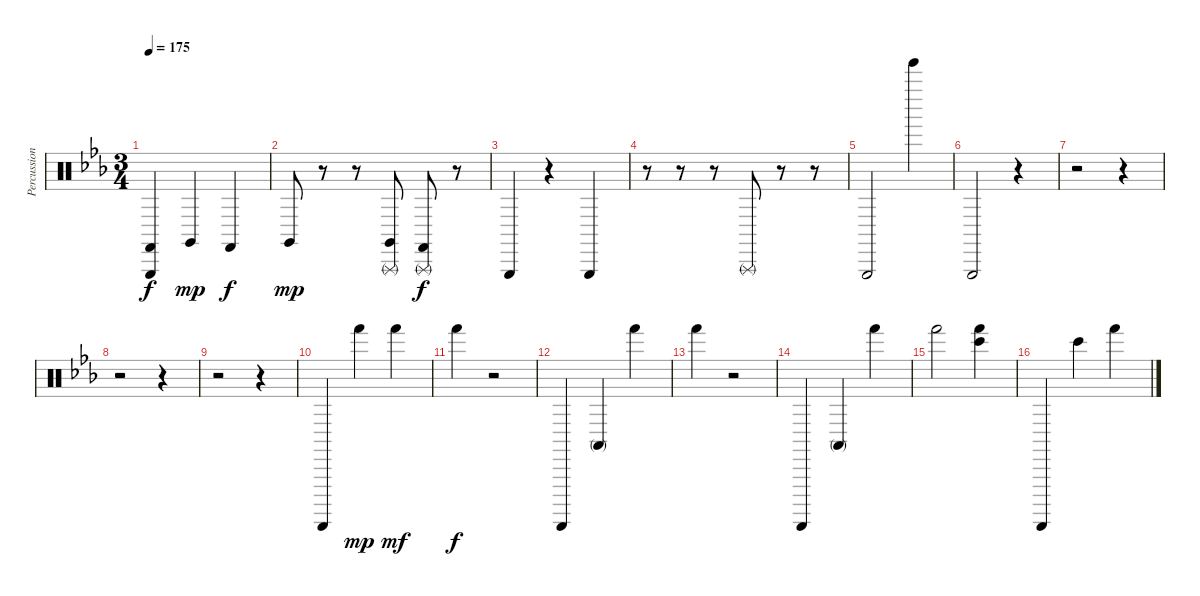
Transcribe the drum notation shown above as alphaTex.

\track ("Percussion" "Percussion") {instrument percussion}
\staff {score}
\articulation defaults
\ts (3 4)
\tempo 175
\clef neutral
\ks eb
("Triangle (hit)" "Castanets (hit)").4{dy f} "Claves (hit)".4{dy mp} "Castanets (hit)".4{dy f} |
"Claves (hit)".8{dy mp} r.8 r.8 ("Triangle (rnute)" "Claves (hit)").8 ("Triangle (rnute)" "Castanets (hit)").8{dy f} r.8 |
"Triangle (hit)".4 r.4 "Triangle (hit)".4 |
r.8 r.8 r.8 "Triangle (rnute)".8 r.8 r.8 |
"Triangle (hit)".2 "Tinkle Bell (hit)".4 |
"Triangle (hit)".2 r.4 |
r.2 r.4 |
r.2 r.4 |
r.2 r.4 |
"Guiro (scrap-return)".4 "Hand (hit)".4{dy mp} "Hand (hit)".4{dy mf} |
"Hand (hit)".4{dy f} r.2 |
"Guiro (scrap-return)".4 "Conga high (mute)".4 "Hand (hit)".4 |
"Hand (hit)".4 r.2 |
"Guiro (scrap-return)".4 "Conga high (mute)".4 "Hand (hit)".4 |
"Hand (hit)".2 ("Hand (hit)" "Bongo High (hit)").4 |
"Guiro (scrap-return)".4 "Bongo High (hit)".4 "Hand (hit)".4
